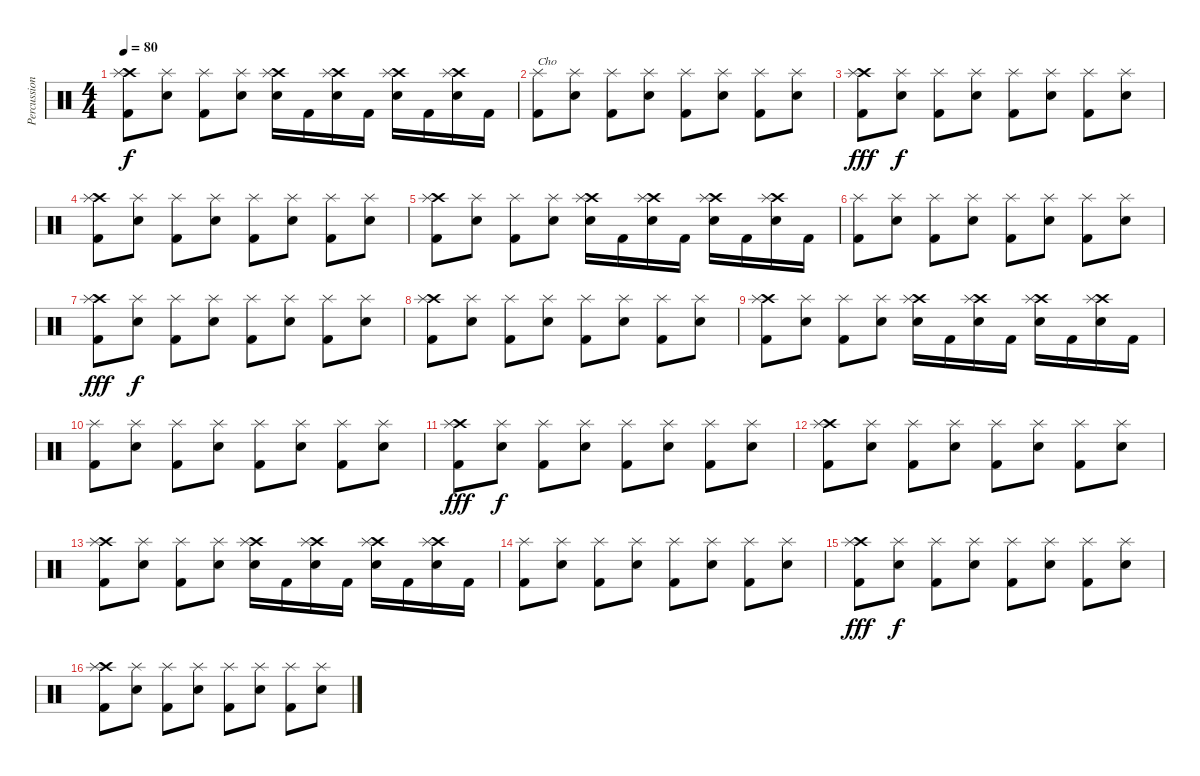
\track ("Percussion" "Percussion") {instrument percussion}
\staff {score}
\articulation defaults
\ts (4 4)
\tempo 80
\clef neutral
\ks c
("Crash high (hit)" "Kick (hit) 2" "Splash (hit)").8{dy f} ("Snare (hit) 2" "Splash (hit)").8 ("Kick (hit) 2" "Splash (hit)").8 ("Snare (hit) 2" "Splash (hit)").8 ("Crash high (hit)" "Snare (hit) 2" "Splash (hit)").16 "Kick (hit) 2".16 ("Crash high (hit)" "Snare (hit) 2" "Splash (hit)").16 "Kick (hit) 2".16 ("Crash high (hit)" "Snare (hit) 2" "Splash (hit)").16 "Kick (hit) 2".16 ("Crash high (hit)" "Snare (hit) 2" "Splash (hit)").16 "Kick (hit) 2".16 |
("Kick (hit) 2" "Splash (hit)").8{txt "Cho"} ("Snare (hit) 2" "Splash (hit)").8 ("Kick (hit) 2" "Splash (hit)").8 ("Snare (hit) 2" "Splash (hit)").8 ("Kick (hit) 2" "Splash (hit)").8 ("Snare (hit) 2" "Splash (hit)").8 ("Kick (hit) 2" "Splash (hit)").8 ("Snare (hit) 2" "Splash (hit)").8 |
("Crash high (hit)" "Kick (hit) 2" "Splash (hit)").8{dy fff} ("Snare (hit) 2" "Splash (hit)").8{dy f} ("Kick (hit) 2" "Splash (hit)").8 ("Snare (hit) 2" "Splash (hit)").8 ("Kick (hit) 2" "Splash (hit)").8 ("Snare (hit) 2" "Splash (hit)").8 ("Kick (hit) 2" "Splash (hit)").8 ("Snare (hit) 2" "Splash (hit)").8 |
("Crash high (hit)" "Kick (hit) 2" "Splash (hit)").8 ("Snare (hit) 2" "Splash (hit)").8 ("Kick (hit) 2" "Splash (hit)").8 ("Snare (hit) 2" "Splash (hit)").8 ("Kick (hit) 2" "Splash (hit)").8 ("Snare (hit) 2" "Splash (hit)").8 ("Kick (hit) 2" "Splash (hit)").8 ("Snare (hit) 2" "Splash (hit)").8 |
("Crash high (hit)" "Kick (hit) 2" "Splash (hit)").8 ("Snare (hit) 2" "Splash (hit)").8 ("Kick (hit) 2" "Splash (hit)").8 ("Snare (hit) 2" "Splash (hit)").8 ("Crash high (hit)" "Snare (hit) 2" "Splash (hit)").16 "Kick (hit) 2".16 ("Crash high (hit)" "Snare (hit) 2" "Splash (hit)").16 "Kick (hit) 2".16 ("Crash high (hit)" "Snare (hit) 2" "Splash (hit)").16 "Kick (hit) 2".16 ("Crash high (hit)" "Snare (hit) 2" "Splash (hit)").16 "Kick (hit) 2".16 |
("Kick (hit) 2" "Splash (hit)").8 ("Snare (hit) 2" "Splash (hit)").8 ("Kick (hit) 2" "Splash (hit)").8 ("Snare (hit) 2" "Splash (hit)").8 ("Kick (hit) 2" "Splash (hit)").8 ("Snare (hit) 2" "Splash (hit)").8 ("Kick (hit) 2" "Splash (hit)").8 ("Snare (hit) 2" "Splash (hit)").8 |
("Crash high (hit)" "Kick (hit) 2" "Splash (hit)").8{dy fff} ("Snare (hit) 2" "Splash (hit)").8{dy f} ("Kick (hit) 2" "Splash (hit)").8 ("Snare (hit) 2" "Splash (hit)").8 ("Kick (hit) 2" "Splash (hit)").8 ("Snare (hit) 2" "Splash (hit)").8 ("Kick (hit) 2" "Splash (hit)").8 ("Snare (hit) 2" "Splash (hit)").8 |
("Crash high (hit)" "Kick (hit) 2" "Splash (hit)").8 ("Snare (hit) 2" "Splash (hit)").8 ("Kick (hit) 2" "Splash (hit)").8 ("Snare (hit) 2" "Splash (hit)").8 ("Kick (hit) 2" "Splash (hit)").8 ("Snare (hit) 2" "Splash (hit)").8 ("Kick (hit) 2" "Splash (hit)").8 ("Snare (hit) 2" "Splash (hit)").8 |
("Crash high (hit)" "Kick (hit) 2" "Splash (hit)").8 ("Snare (hit) 2" "Splash (hit)").8 ("Kick (hit) 2" "Splash (hit)").8 ("Snare (hit) 2" "Splash (hit)").8 ("Crash high (hit)" "Snare (hit) 2" "Splash (hit)").16 "Kick (hit) 2".16 ("Crash high (hit)" "Snare (hit) 2" "Splash (hit)").16 "Kick (hit) 2".16 ("Crash high (hit)" "Snare (hit) 2" "Splash (hit)").16 "Kick (hit) 2".16 ("Crash high (hit)" "Snare (hit) 2" "Splash (hit)").16 "Kick (hit) 2".16 |
("Kick (hit) 2" "Splash (hit)").8 ("Snare (hit) 2" "Splash (hit)").8 ("Kick (hit) 2" "Splash (hit)").8 ("Snare (hit) 2" "Splash (hit)").8 ("Kick (hit) 2" "Splash (hit)").8 ("Snare (hit) 2" "Splash (hit)").8 ("Kick (hit) 2" "Splash (hit)").8 ("Snare (hit) 2" "Splash (hit)").8 |
("Crash high (hit)" "Kick (hit) 2" "Splash (hit)").8{dy fff} ("Snare (hit) 2" "Splash (hit)").8{dy f} ("Kick (hit) 2" "Splash (hit)").8 ("Snare (hit) 2" "Splash (hit)").8 ("Kick (hit) 2" "Splash (hit)").8 ("Snare (hit) 2" "Splash (hit)").8 ("Kick (hit) 2" "Splash (hit)").8 ("Snare (hit) 2" "Splash (hit)").8 |
("Crash high (hit)" "Kick (hit) 2" "Splash (hit)").8 ("Snare (hit) 2" "Splash (hit)").8 ("Kick (hit) 2" "Splash (hit)").8 ("Snare (hit) 2" "Splash (hit)").8 ("Kick (hit) 2" "Splash (hit)").8 ("Snare (hit) 2" "Splash (hit)").8 ("Kick (hit) 2" "Splash (hit)").8 ("Snare (hit) 2" "Splash (hit)").8 |
("Crash high (hit)" "Kick (hit) 2" "Splash (hit)").8 ("Snare (hit) 2" "Splash (hit)").8 ("Kick (hit) 2" "Splash (hit)").8 ("Snare (hit) 2" "Splash (hit)").8 ("Crash high (hit)" "Snare (hit) 2" "Splash (hit)").16 "Kick (hit) 2".16 ("Crash high (hit)" "Snare (hit) 2" "Splash (hit)").16 "Kick (hit) 2".16 ("Crash high (hit)" "Snare (hit) 2" "Splash (hit)").16 "Kick (hit) 2".16 ("Crash high (hit)" "Snare (hit) 2" "Splash (hit)").16 "Kick (hit) 2".16 |
("Kick (hit) 2" "Splash (hit)").8 ("Snare (hit) 2" "Splash (hit)").8 ("Kick (hit) 2" "Splash (hit)").8 ("Snare (hit) 2" "Splash (hit)").8 ("Kick (hit) 2" "Splash (hit)").8 ("Snare (hit) 2" "Splash (hit)").8 ("Kick (hit) 2" "Splash (hit)").8 ("Snare (hit) 2" "Splash (hit)").8 |
("Crash high (hit)" "Kick (hit) 2" "Splash (hit)").8{dy fff} ("Snare (hit) 2" "Splash (hit)").8{dy f} ("Kick (hit) 2" "Splash (hit)").8 ("Snare (hit) 2" "Splash (hit)").8 ("Kick (hit) 2" "Splash (hit)").8 ("Snare (hit) 2" "Splash (hit)").8 ("Kick (hit) 2" "Splash (hit)").8 ("Snare (hit) 2" "Splash (hit)").8 |
("Crash high (hit)" "Kick (hit) 2" "Splash (hit)").8 ("Snare (hit) 2" "Splash (hit)").8 ("Kick (hit) 2" "Splash (hit)").8 ("Snare (hit) 2" "Splash (hit)").8 ("Kick (hit) 2" "Splash (hit)").8 ("Snare (hit) 2" "Splash (hit)").8 ("Kick (hit) 2" "Splash (hit)").8 ("Snare (hit) 2" "Splash (hit)").8
